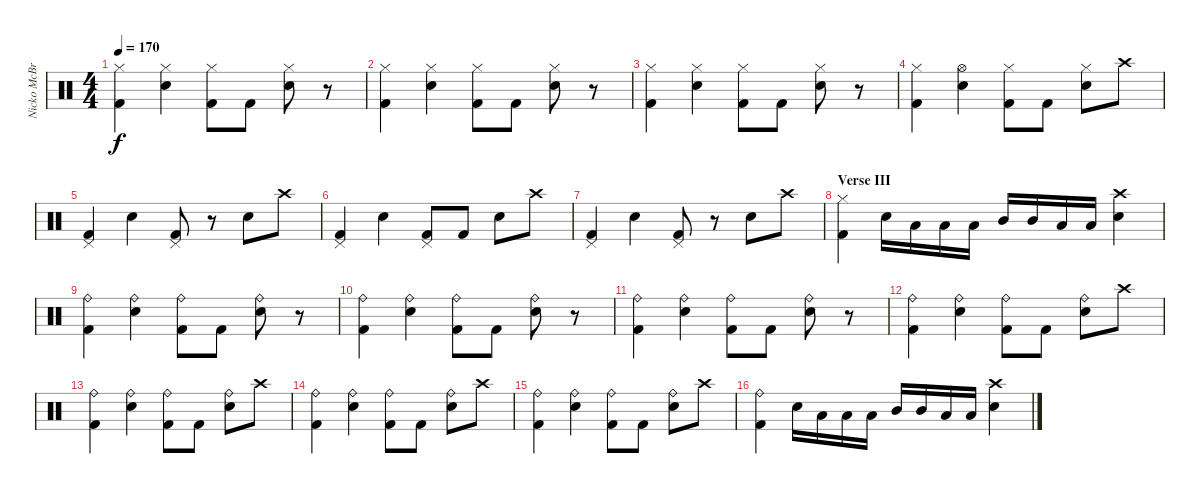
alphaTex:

\track ("Nicko McBrain" "Nicko McBr") {instrument percussion}
\staff {score}
\articulation defaults
\ts (4 4)
\tempo 170
\clef neutral
\ks c
("Hi-Hat (closed)" "Kick (hit) 2").4{dy f} ("Hi-Hat (closed)" "Snare (hit) 2").4 ("Hi-Hat (closed)" "Kick (hit) 2").8 "Kick (hit) 2".8 ("Hi-Hat (closed)" "Snare (hit) 2").8 r.8 |
("Hi-Hat (closed)" "Kick (hit) 2").4 ("Hi-Hat (closed)" "Snare (hit) 2").4 ("Hi-Hat (closed)" "Kick (hit) 2").8 "Kick (hit) 2".8 ("Hi-Hat (closed)" "Snare (hit) 2").8 r.8 |
("Hi-Hat (closed)" "Kick (hit) 2").4 ("Hi-Hat (closed)" "Snare (hit) 2").4 ("Hi-Hat (closed)" "Kick (hit) 2").8 "Kick (hit) 2".8 ("Hi-Hat (closed)" "Snare (hit) 2").8 r.8 |
("Hi-Hat (closed)" "Kick (hit) 2").4 ("Hi-Hat (open)" "Snare (hit) 2").4 ("Hi-Hat (closed)" "Kick (hit) 2").8 "Kick (hit) 2".8 ("Hi-Hat (closed)" "Snare (hit) 2").8 "Crash high (hit)".8 |
("Pedal Hi-Hat (hit)" "Kick (hit) 2").4 "Snare (hit) 2".4 ("Pedal Hi-Hat (hit)" "Kick (hit) 2").8 r.8 "Snare (hit) 2".8 "Crash high (hit)".8 |
("Pedal Hi-Hat (hit)" "Kick (hit) 2").4 "Snare (hit) 2".4 ("Pedal Hi-Hat (hit)" "Kick (hit) 2").8 "Kick (hit) 2".8 "Snare (hit) 2".8 "Crash high (hit)".8 |
("Pedal Hi-Hat (hit)" "Kick (hit) 2").4 "Snare (hit) 2".4 ("Pedal Hi-Hat (hit)" "Kick (hit) 2").8 r.8 "Snare (hit) 2".8 "Crash high (hit)".8 |
\section ("" "Verse III")
("Hi-Hat (closed)" "Kick (hit) 2").4 "Snare (hit) 2".16 "Low Tom (hit)".16 "Low Tom (hit)".16 "Low Tom (hit)".16 "Mid Tom (hit)".16 "Mid Tom (hit)".16 "Low Tom (hit)".16 "Low Tom (hit)".16 ("Crash high (hit)" "Snare (hit) 2").4 |
("Ride (bell)" "Kick (hit) 2").4 ("Ride (bell)" "Snare (hit) 2").4 ("Ride (bell)" "Kick (hit) 2").8 "Kick (hit) 2".8 ("Ride (bell)" "Snare (hit) 2").8 r.8 |
("Ride (bell)" "Kick (hit) 2").4 ("Ride (bell)" "Snare (hit) 2").4 ("Ride (bell)" "Kick (hit) 2").8 "Kick (hit) 2".8 ("Ride (bell)" "Snare (hit) 2").8 r.8 |
("Ride (bell)" "Kick (hit) 2").4 ("Ride (bell)" "Snare (hit) 2").4 ("Ride (bell)" "Kick (hit) 2").8 "Kick (hit) 2".8 ("Ride (bell)" "Snare (hit) 2").8 r.8 |
("Ride (bell)" "Kick (hit) 2").4 ("Ride (bell)" "Snare (hit) 2").4 ("Ride (bell)" "Kick (hit) 2").8 "Kick (hit) 2".8 ("Ride (bell)" "Snare (hit) 2").8 "Crash high (hit)".8 |
("Ride (bell)" "Kick (hit) 2").4 ("Ride (bell)" "Snare (hit) 2").4 ("Ride (bell)" "Kick (hit) 2").8 "Kick (hit) 2".8 ("Ride (bell)" "Snare (hit) 2").8 "Crash high (hit)".8 |
("Ride (bell)" "Kick (hit) 2").4 ("Ride (bell)" "Snare (hit) 2").4 ("Ride (bell)" "Kick (hit) 2").8 "Kick (hit) 2".8 ("Ride (bell)" "Snare (hit) 2").8 "Crash high (hit)".8 |
("Ride (bell)" "Kick (hit) 2").4 ("Ride (bell)" "Snare (hit) 2").4 ("Ride (bell)" "Kick (hit) 2").8 "Kick (hit) 2".8 ("Ride (bell)" "Snare (hit) 2").8 "Crash high (hit)".8 |
("Ride (bell)" "Kick (hit) 2").4 "Snare (hit) 2".16 "Low Tom (hit)".16 "Low Tom (hit)".16 "Low Tom (hit)".16 "Mid Tom (hit)".16 "Mid Tom (hit)".16 "Low Tom (hit)".16 "Low Tom (hit)".16 ("Crash high (hit)" "Snare (hit) 2").4
